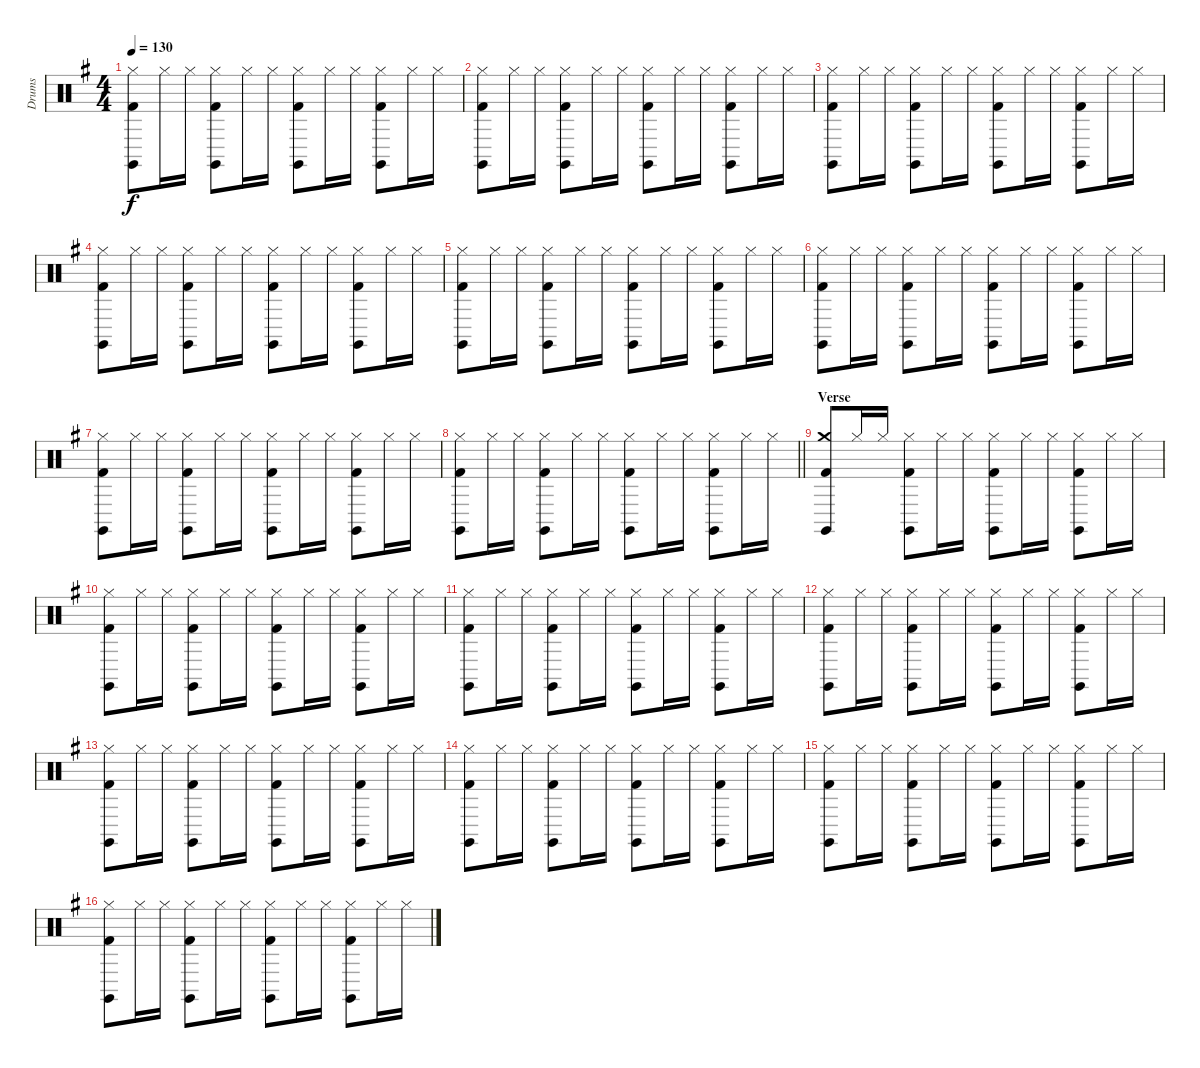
\track ("Drums" "Drums") {instrument percussion}
\staff {score}
\articulation defaults
\ts (4 4)
\tempo 130
\clef neutral
\ks g
("Hi-Hat (closed)" "Claves (hit)" "Kick (hit) 2").8{dy f} "Hi-Hat (closed)".16 "Hi-Hat (closed)".16 ("Hi-Hat (closed)" "Claves (hit)" "Kick (hit) 2").8 "Hi-Hat (closed)".16 "Hi-Hat (closed)".16 ("Hi-Hat (closed)" "Claves (hit)" "Kick (hit) 2").8 "Hi-Hat (closed)".16 "Hi-Hat (closed)".16 ("Hi-Hat (closed)" "Claves (hit)" "Kick (hit) 2").8 "Hi-Hat (closed)".16 "Hi-Hat (closed)".16 |
("Hi-Hat (closed)" "Claves (hit)" "Kick (hit) 2").8 "Hi-Hat (closed)".16 "Hi-Hat (closed)".16 ("Hi-Hat (closed)" "Claves (hit)" "Kick (hit) 2").8 "Hi-Hat (closed)".16 "Hi-Hat (closed)".16 ("Hi-Hat (closed)" "Claves (hit)" "Kick (hit) 2").8 "Hi-Hat (closed)".16 "Hi-Hat (closed)".16 ("Hi-Hat (closed)" "Claves (hit)" "Kick (hit) 2").8 "Hi-Hat (closed)".16 "Hi-Hat (closed)".16 |
("Hi-Hat (closed)" "Claves (hit)" "Kick (hit) 2").8 "Hi-Hat (closed)".16 "Hi-Hat (closed)".16 ("Hi-Hat (closed)" "Claves (hit)" "Kick (hit) 2").8 "Hi-Hat (closed)".16 "Hi-Hat (closed)".16 ("Hi-Hat (closed)" "Claves (hit)" "Kick (hit) 2").8 "Hi-Hat (closed)".16 "Hi-Hat (closed)".16 ("Hi-Hat (closed)" "Claves (hit)" "Kick (hit) 2").8 "Hi-Hat (closed)".16 "Hi-Hat (closed)".16 |
("Hi-Hat (closed)" "Claves (hit)" "Kick (hit) 2").8 "Hi-Hat (closed)".16 "Hi-Hat (closed)".16 ("Hi-Hat (closed)" "Claves (hit)" "Kick (hit) 2").8 "Hi-Hat (closed)".16 "Hi-Hat (closed)".16 ("Hi-Hat (closed)" "Claves (hit)" "Kick (hit) 2").8 "Hi-Hat (closed)".16 "Hi-Hat (closed)".16 ("Hi-Hat (closed)" "Claves (hit)" "Kick (hit) 2").8 "Hi-Hat (closed)".16 "Hi-Hat (closed)".16 |
("Hi-Hat (closed)" "Claves (hit)" "Kick (hit) 2").8 "Hi-Hat (closed)".16 "Hi-Hat (closed)".16 ("Hi-Hat (closed)" "Claves (hit)" "Kick (hit) 2").8 "Hi-Hat (closed)".16 "Hi-Hat (closed)".16 ("Hi-Hat (closed)" "Claves (hit)" "Kick (hit) 2").8 "Hi-Hat (closed)".16 "Hi-Hat (closed)".16 ("Hi-Hat (closed)" "Claves (hit)" "Kick (hit) 2").8 "Hi-Hat (closed)".16 "Hi-Hat (closed)".16 |
("Hi-Hat (closed)" "Claves (hit)" "Kick (hit) 2").8 "Hi-Hat (closed)".16 "Hi-Hat (closed)".16 ("Hi-Hat (closed)" "Claves (hit)" "Kick (hit) 2").8 "Hi-Hat (closed)".16 "Hi-Hat (closed)".16 ("Hi-Hat (closed)" "Claves (hit)" "Kick (hit) 2").8 "Hi-Hat (closed)".16 "Hi-Hat (closed)".16 ("Hi-Hat (closed)" "Claves (hit)" "Kick (hit) 2").8 "Hi-Hat (closed)".16 "Hi-Hat (closed)".16 |
("Hi-Hat (closed)" "Claves (hit)" "Kick (hit) 2").8 "Hi-Hat (closed)".16 "Hi-Hat (closed)".16 ("Hi-Hat (closed)" "Claves (hit)" "Kick (hit) 2").8 "Hi-Hat (closed)".16 "Hi-Hat (closed)".16 ("Hi-Hat (closed)" "Claves (hit)" "Kick (hit) 2").8 "Hi-Hat (closed)".16 "Hi-Hat (closed)".16 ("Hi-Hat (closed)" "Claves (hit)" "Kick (hit) 2").8 "Hi-Hat (closed)".16 "Hi-Hat (closed)".16 |
\barLineRight lightlight
("Hi-Hat (closed)" "Claves (hit)" "Kick (hit) 2").8 "Hi-Hat (closed)".16 "Hi-Hat (closed)".16 ("Hi-Hat (closed)" "Claves (hit)" "Kick (hit) 2").8 "Hi-Hat (closed)".16 "Hi-Hat (closed)".16 ("Hi-Hat (closed)" "Claves (hit)" "Kick (hit) 2").8 "Hi-Hat (closed)".16 "Hi-Hat (closed)".16 ("Hi-Hat (closed)" "Claves (hit)" "Kick (hit) 2").8 "Hi-Hat (closed)".16 "Hi-Hat (closed)".16 |
\section ("" "Verse")
("Crash medium (hit)" "Claves (hit)" "Kick (hit) 2").8 "Hi-Hat (closed)".16 "Hi-Hat (closed)".16 ("Hi-Hat (closed)" "Claves (hit)" "Kick (hit) 2").8 "Hi-Hat (closed)".16 "Hi-Hat (closed)".16 ("Hi-Hat (closed)" "Claves (hit)" "Kick (hit) 2").8 "Hi-Hat (closed)".16 "Hi-Hat (closed)".16 ("Hi-Hat (closed)" "Claves (hit)" "Kick (hit) 2").8 "Hi-Hat (closed)".16 "Hi-Hat (closed)".16 |
("Hi-Hat (closed)" "Claves (hit)" "Kick (hit) 2").8 "Hi-Hat (closed)".16 "Hi-Hat (closed)".16 ("Hi-Hat (closed)" "Claves (hit)" "Kick (hit) 2").8 "Hi-Hat (closed)".16 "Hi-Hat (closed)".16 ("Hi-Hat (closed)" "Claves (hit)" "Kick (hit) 2").8 "Hi-Hat (closed)".16 "Hi-Hat (closed)".16 ("Hi-Hat (closed)" "Claves (hit)" "Kick (hit) 2").8 "Hi-Hat (closed)".16 "Hi-Hat (closed)".16 |
("Hi-Hat (closed)" "Claves (hit)" "Kick (hit) 2").8 "Hi-Hat (closed)".16 "Hi-Hat (closed)".16 ("Hi-Hat (closed)" "Claves (hit)" "Kick (hit) 2").8 "Hi-Hat (closed)".16 "Hi-Hat (closed)".16 ("Hi-Hat (closed)" "Claves (hit)" "Kick (hit) 2").8 "Hi-Hat (closed)".16 "Hi-Hat (closed)".16 ("Hi-Hat (closed)" "Claves (hit)" "Kick (hit) 2").8 "Hi-Hat (closed)".16 "Hi-Hat (closed)".16 |
("Hi-Hat (closed)" "Claves (hit)" "Kick (hit) 2").8 "Hi-Hat (closed)".16 "Hi-Hat (closed)".16 ("Hi-Hat (closed)" "Claves (hit)" "Kick (hit) 2").8 "Hi-Hat (closed)".16 "Hi-Hat (closed)".16 ("Hi-Hat (closed)" "Claves (hit)" "Kick (hit) 2").8 "Hi-Hat (closed)".16 "Hi-Hat (closed)".16 ("Hi-Hat (closed)" "Claves (hit)" "Kick (hit) 2").8 "Hi-Hat (closed)".16 "Hi-Hat (closed)".16 |
("Hi-Hat (closed)" "Claves (hit)" "Kick (hit) 2").8 "Hi-Hat (closed)".16 "Hi-Hat (closed)".16 ("Hi-Hat (closed)" "Claves (hit)" "Kick (hit) 2").8 "Hi-Hat (closed)".16 "Hi-Hat (closed)".16 ("Hi-Hat (closed)" "Claves (hit)" "Kick (hit) 2").8 "Hi-Hat (closed)".16 "Hi-Hat (closed)".16 ("Hi-Hat (closed)" "Claves (hit)" "Kick (hit) 2").8 "Hi-Hat (closed)".16 "Hi-Hat (closed)".16 |
("Hi-Hat (closed)" "Claves (hit)" "Kick (hit) 2").8 "Hi-Hat (closed)".16 "Hi-Hat (closed)".16 ("Hi-Hat (closed)" "Claves (hit)" "Kick (hit) 2").8 "Hi-Hat (closed)".16 "Hi-Hat (closed)".16 ("Hi-Hat (closed)" "Claves (hit)" "Kick (hit) 2").8 "Hi-Hat (closed)".16 "Hi-Hat (closed)".16 ("Hi-Hat (closed)" "Claves (hit)" "Kick (hit) 2").8 "Hi-Hat (closed)".16 "Hi-Hat (closed)".16 |
("Hi-Hat (closed)" "Claves (hit)" "Kick (hit) 2").8 "Hi-Hat (closed)".16 "Hi-Hat (closed)".16 ("Hi-Hat (closed)" "Claves (hit)" "Kick (hit) 2").8 "Hi-Hat (closed)".16 "Hi-Hat (closed)".16 ("Hi-Hat (closed)" "Claves (hit)" "Kick (hit) 2").8 "Hi-Hat (closed)".16 "Hi-Hat (closed)".16 ("Hi-Hat (closed)" "Claves (hit)" "Kick (hit) 2").8 "Hi-Hat (closed)".16 "Hi-Hat (closed)".16 |
("Hi-Hat (closed)" "Claves (hit)" "Kick (hit) 2").8 "Hi-Hat (closed)".16 "Hi-Hat (closed)".16 ("Hi-Hat (closed)" "Claves (hit)" "Kick (hit) 2").8 "Hi-Hat (closed)".16 "Hi-Hat (closed)".16 ("Hi-Hat (closed)" "Claves (hit)" "Kick (hit) 2").8 "Hi-Hat (closed)".16 "Hi-Hat (closed)".16 ("Hi-Hat (closed)" "Claves (hit)" "Kick (hit) 2").8 "Hi-Hat (closed)".16 "Hi-Hat (closed)".16
